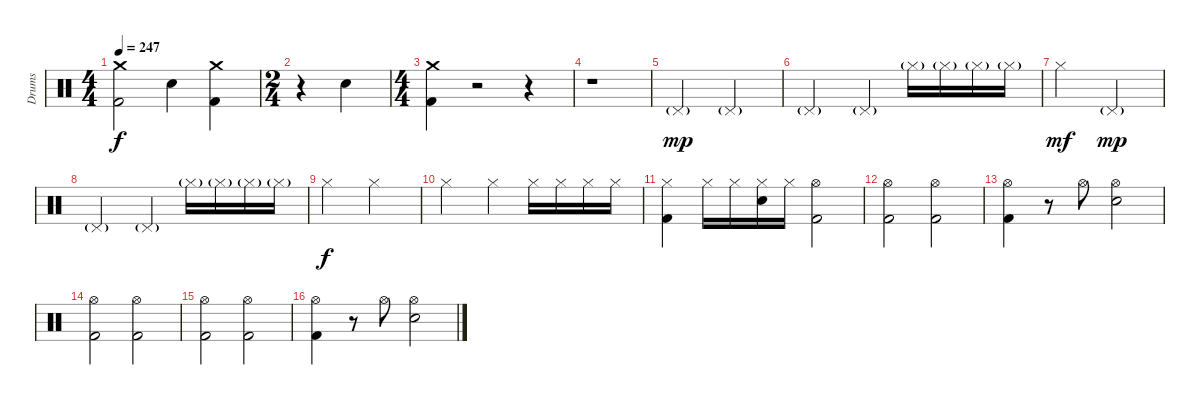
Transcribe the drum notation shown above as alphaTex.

\track ("Drums" "Drums") {instrument percussion}
\staff {score}
\articulation defaults
\ts (4 4)
\tempo 247
\clef neutral
\ks c
("Crash medium (hit)" "Kick (hit) 2").2{dy f} "Electric Snare (hit)".4 ("Crash medium (hit)" "Kick (hit) 2").4 |
\ts (2 4)
r.4 "Electric Snare (hit)".4 |
\ts (4 4)
("Crash medium (hit)" "Kick (hit) 2").4 r.2 r.4 |
r.1 |
"Pedal Hi-Hat (hit)"{g}.2{dy mp} "Pedal Hi-Hat (hit)"{g}.2 |
"Pedal Hi-Hat (hit)"{g}.2 "Pedal Hi-Hat (hit)"{g}.4 "Hi-Hat (closed)"{g}.16 "Hi-Hat (closed)"{g}.16 "Hi-Hat (closed)"{g}.16 "Hi-Hat (closed)"{g}.16 |
"Hi-Hat (closed)".2{dy mf} "Pedal Hi-Hat (hit)"{g}.2{dy mp} |
"Pedal Hi-Hat (hit)"{g}.2 "Pedal Hi-Hat (hit)"{g}.4 "Hi-Hat (closed)"{g}.16 "Hi-Hat (closed)"{g}.16 "Hi-Hat (closed)"{g}.16 "Hi-Hat (closed)"{g}.16 |
"Hi-Hat (closed)".2{dy f} "Hi-Hat (closed)".2 |
"Hi-Hat (closed)".2 "Hi-Hat (closed)".4 "Hi-Hat (closed)".16 "Hi-Hat (closed)".16 "Hi-Hat (closed)".16 "Hi-Hat (closed)".16 |
("Hi-Hat (closed)" "Kick (hit) 2").4 "Hi-Hat (closed)".16 "Hi-Hat (closed)".16 ("Hi-Hat (closed)" "Electric Snare (hit)").16 "Hi-Hat (closed)".16 ("Hi-Hat (open)" "Kick (hit) 2").2 |
("Hi-Hat (open)" "Kick (hit) 2").2 ("Hi-Hat (open)" "Kick (hit) 2").2 |
("Hi-Hat (open)" "Kick (hit) 2").4 r.8 "Hi-Hat (open)".8 ("Hi-Hat (open)" "Electric Snare (hit)").2 |
("Hi-Hat (open)" "Kick (hit) 2").2 ("Hi-Hat (open)" "Kick (hit) 2").2 |
("Hi-Hat (open)" "Kick (hit) 2").2 ("Hi-Hat (open)" "Kick (hit) 2").2 |
("Hi-Hat (open)" "Kick (hit) 2").4 r.8 "Hi-Hat (open)".8 ("Hi-Hat (open)" "Electric Snare (hit)").2
